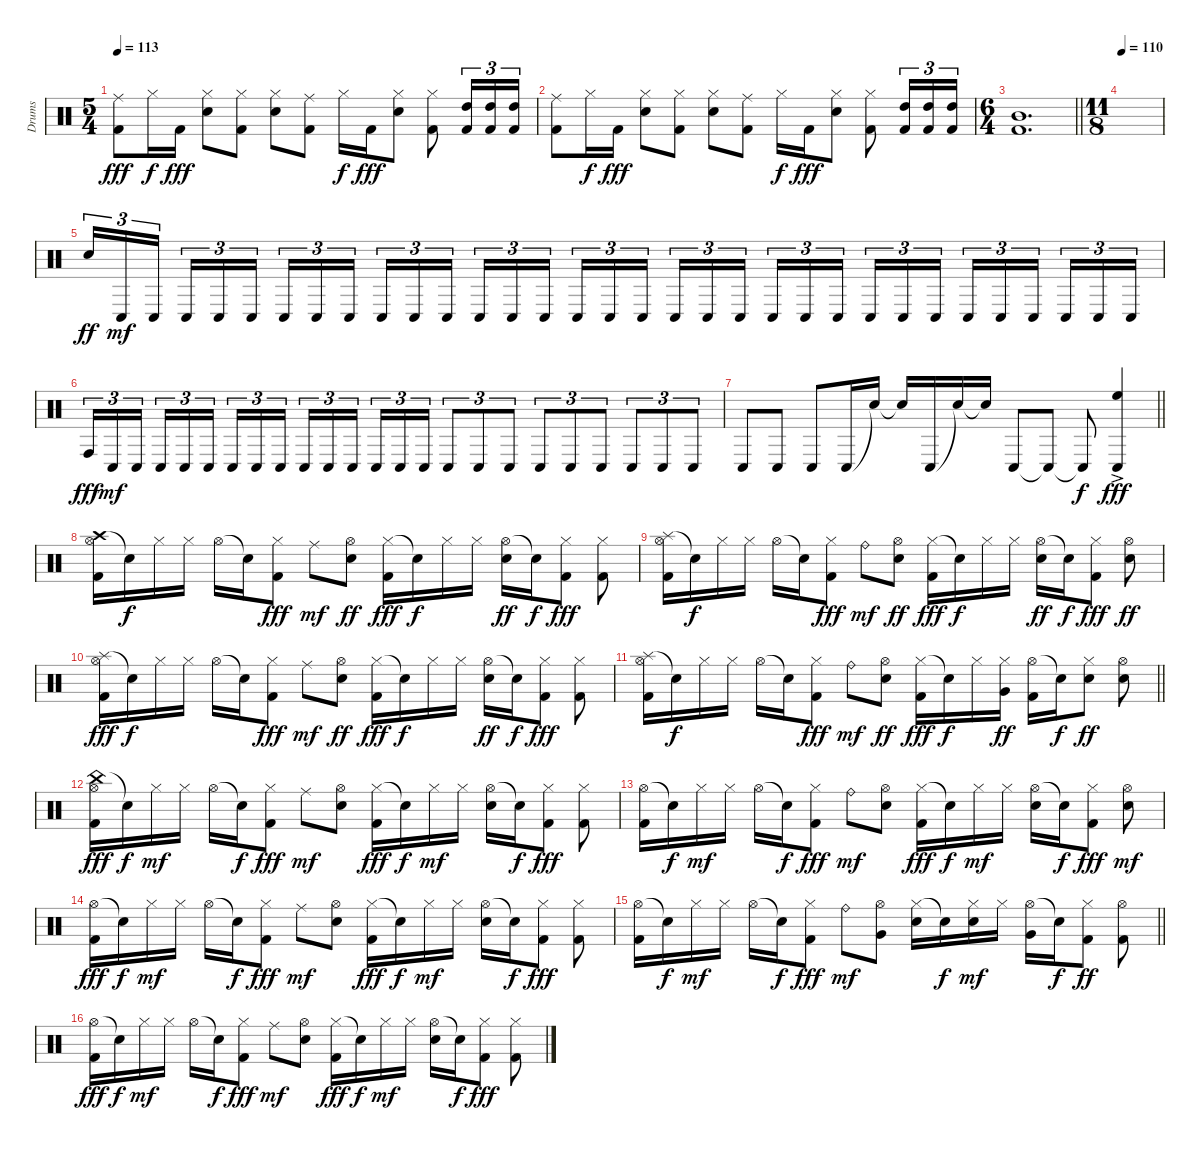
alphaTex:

\track ("Drums" "Drums") {instrument percussion}
\staff {score}
\articulation defaults
\ts (5 4)
\tempo 113
\clef neutral
\ks c
("Ride (middle)" "Kick (hit) 2").8{dy fff} "Hi-Hat (closed)".16{dy f} "Kick (hit) 2".16{dy fff} ("Hi-Hat (closed)" "Snare (hit) 2").8 ("Hi-Hat (closed)" "Kick (hit) 2").8 ("Hi-Hat (closed)" "Snare (hit) 2").8 ("Ride (middle)" "Kick (hit) 2").8 "Hi-Hat (closed)".16{dy f} "Kick (hit) 2".16{dy fff} ("Hi-Hat (closed)" "Snare (hit) 2").8 ("Hi-Hat (closed)" "Kick (hit) 2").8 ("High Tom (hit)" "Kick (hit) 2").16{tu (3 2)} ("High Tom (hit)" "Kick (hit) 2").16{tu (3 2)} ("High Tom (hit)" "Kick (hit) 2").16{tu (3 2)} |
("Ride (middle)" "Kick (hit) 2").8 "Hi-Hat (closed)".16{dy f} "Kick (hit) 2".16{dy fff} ("Hi-Hat (closed)" "Snare (hit) 2").8 ("Hi-Hat (closed)" "Kick (hit) 2").8 ("Hi-Hat (closed)" "Snare (hit) 2").8 ("Ride (middle)" "Kick (hit) 2").8 "Hi-Hat (closed)".16{dy f} "Kick (hit) 2".16{dy fff} ("Hi-Hat (closed)" "Snare (hit) 2").8 ("Hi-Hat (closed)" "Kick (hit) 2").8 ("High Tom (hit)" "Kick (hit) 2").16{tu (3 2)} ("High Tom (hit)" "Kick (hit) 2").16{tu (3 2)} ("High Tom (hit)" "Kick (hit) 2").16{tu (3 2)} |
\ts (6 4)
\barLineRight lightlight
("Mid Tom (hit)" "Kick (hit) 2").1{d} |
\ts (11 8)
\section ("" "")
\tempo 110
|
"Snare (hit) 2".16{tu (3 2) dy ff} "Conga low (hit)".16{tu (3 2) dy mf} "Conga low (hit)".16{tu (3 2)} "Conga low (hit)".16{tu (3 2)} "Conga low (hit)".16{tu (3 2)} "Conga low (hit)".16{tu (3 2)} "Conga low (hit)".16{tu (3 2)} "Conga low (hit)".16{tu (3 2)} "Conga low (hit)".16{tu (3 2)} "Conga low (hit)".16{tu (3 2)} "Conga low (hit)".16{tu (3 2)} "Conga low (hit)".16{tu (3 2)} "Conga low (hit)".16{tu (3 2)} "Conga low (hit)".16{tu (3 2)} "Conga low (hit)".16{tu (3 2)} "Conga low (hit)".16{tu (3 2)} "Conga low (hit)".16{tu (3 2)} "Conga low (hit)".16{tu (3 2)} "Conga low (hit)".16{tu (3 2)} "Conga low (hit)".16{tu (3 2)} "Conga low (hit)".16{tu (3 2)} "Conga low (hit)".16{tu (3 2)} "Conga low (hit)".16{tu (3 2)} "Conga low (hit)".16{tu (3 2)} "Conga low (hit)".16{tu (3 2)} "Conga low (hit)".16{tu (3 2)} "Conga low (hit)".16{tu (3 2)} "Conga low (hit)".16{tu (3 2)} "Conga low (hit)".16{tu (3 2)} "Conga low (hit)".16{tu (3 2)} "Conga low (hit)".16{tu (3 2)} "Conga low (hit)".16{tu (3 2)} "Conga low (hit)".16{tu (3 2)} |
"Conga high (hit)".16{tu (3 2) dy fff} "Conga low (hit)".16{tu (3 2) dy mf} "Conga low (hit)".16{tu (3 2)} "Conga low (hit)".16{tu (3 2)} "Conga low (hit)".16{tu (3 2)} "Conga low (hit)".16{tu (3 2)} "Conga low (hit)".16{tu (3 2)} "Conga low (hit)".16{tu (3 2)} "Conga low (hit)".16{tu (3 2)} "Conga low (hit)".16{tu (3 2)} "Conga low (hit)".16{tu (3 2)} "Conga low (hit)".16{tu (3 2)} "Conga low (hit)".16{tu (3 2)} "Conga low (hit)".16{tu (3 2)} "Conga low (hit)".16{tu (3 2)} "Conga low (hit)".8{tu (3 2)} "Conga low (hit)".8{tu (3 2)} "Conga low (hit)".8{tu (3 2)} "Conga low (hit)".8{tu (3 2)} "Conga low (hit)".8{tu (3 2)} "Conga low (hit)".8{tu (3 2)} "Conga low (hit)".8{tu (3 2)} "Conga low (hit)".8{tu (3 2)} "Conga low (hit)".8{tu (3 2)} |
\barLineRight lightlight "Conga low (hit)".8 "Conga low (hit)".8 "Conga low (hit)".8 "Conga low (hit)".16 "Snare (hit)"{t}.16 "Snare (hit)"{t}.16 "Conga low (hit)".16 "Snare (hit)"{t}.16 "Snare (hit)"{t}.16 "Conga low (hit)".8 "Conga low (hit)"{t}.8 "Conga low (hit)"{t}.8{dy f}
("High Floor Tom (hit)"{ac} "Conga low (hit)"{ac}).4{dy fff} |
\section ("" "")
("Crash high (hit)" "Hi-Hat (open)" "Kick (hit) 2").16 "Snare (hit)"{t}.16{dy f} "Hi-Hat (closed)".16 "Hi-Hat (closed)".16 "Hi-Hat (open)".16 "Snare (hit)"{t}.16 ("Hi-Hat (closed)" "Kick (hit) 2").8{dy fff} "Ride (middle)".8{dy mf} ("Hi-Hat (open)" "Snare (hit) 2").8{dy ff} ("Hi-Hat (closed)" "Kick (hit) 2").16{dy fff} "Snare (hit)"{t}.16{dy f} "Hi-Hat (closed)".16 "Hi-Hat (closed)".16 ("Hi-Hat (open)" "Snare (hit) 2").16{dy ff} "Snare (hit)"{t}.16{dy f} ("Hi-Hat (closed)" "Kick (hit) 2").8{dy fff} ("Hi-Hat (closed)" "Kick (hit) 2").8 |
("Splash (hit)" "Hi-Hat (open)" "Kick (hit) 2").16 "Snare (hit)"{t}.16{dy f} "Hi-Hat (closed)".16 "Hi-Hat (closed)".16 "Hi-Hat (open)".16 "Snare (hit)"{t}.16 ("Hi-Hat (closed)" "Kick (hit) 2").8{dy fff} "Ride (bell)".8{dy mf} ("Hi-Hat (open)" "Snare (hit) 2").8{dy ff} ("Hi-Hat (closed)" "Kick (hit) 2").16{dy fff} "Snare (hit)"{t}.16{dy f} "Hi-Hat (closed)".16 "Hi-Hat (closed)".16 ("Hi-Hat (open)" "Snare (hit) 2").16{dy ff} "Snare (hit)"{t}.16{dy f} ("Hi-Hat (closed)" "Kick (hit) 2").8{dy fff} ("Hi-Hat (open)" "Snare (hit) 2").8{dy ff} |
("Splash (hit)" "Hi-Hat (open)" "Kick (hit) 2").16{dy fff} "Snare (hit)"{t}.16{dy f} "Hi-Hat (closed)".16 "Hi-Hat (closed)".16 "Hi-Hat (open)".16 "Snare (hit)"{t}.16 ("Hi-Hat (closed)" "Kick (hit) 2").8{dy fff} "Ride (middle)".8{dy mf} ("Hi-Hat (open)" "Snare (hit) 2").8{dy ff} ("Hi-Hat (closed)" "Kick (hit) 2").16{dy fff} "Snare (hit)"{t}.16{dy f} "Hi-Hat (closed)".16 "Hi-Hat (closed)".16 ("Hi-Hat (open)" "Snare (hit) 2").16{dy ff} "Snare (hit)"{t}.16{dy f} ("Hi-Hat (closed)" "Kick (hit) 2").8{dy fff} ("Hi-Hat (closed)" "Kick (hit) 2").8 |
\barLineRight lightlight
("Splash (hit)" "Hi-Hat (open)" "Kick (hit) 2").16 "Snare (hit)"{t}.16{dy f} "Hi-Hat (closed)".16 "Hi-Hat (closed)".16 "Hi-Hat (open)".16 "Snare (hit)"{t}.16 ("Hi-Hat (closed)" "Kick (hit) 2").8{dy fff} "Ride (bell)".8{dy mf} ("Hi-Hat (open)" "Snare (hit) 2").8{dy ff} ("Hi-Hat (closed)" "Kick (hit) 2").16{dy fff} "Snare (hit)"{t}.16{dy f} "Hi-Hat (closed)".16 ("Hi-Hat (closed)" "Very Low Tom (hit)").16{dy ff} ("Hi-Hat (open)" "Kick (hit) 2").16 "Snare (hit)"{t}.16{dy f} ("Hi-Hat (closed)" "Snare (hit) 2").8{dy ff} ("Hi-Hat (open)" "Snare (hit) 2").8 |
("China (hit)" "Hi-Hat (open)" "Kick (hit) 2").16{dy fff} "Snare (hit)"{t}.16{dy f} "Hi-Hat (closed)".16{dy mf} "Hi-Hat (closed)".16 "Hi-Hat (open)".16 "Snare (hit)"{t}.16{dy f} ("Hi-Hat (closed)" "Kick (hit) 2").8{dy fff} "Ride (middle)".8{dy mf} ("Hi-Hat (open)" "Snare (hit) 2").8 ("Hi-Hat (closed)" "Kick (hit) 2").16{dy fff} "Snare (hit)"{t}.16{dy f} "Hi-Hat (closed)".16{dy mf} "Hi-Hat (closed)".16 ("Hi-Hat (open)" "Snare (hit) 2").16 "Snare (hit)"{t}.16{dy f} ("Hi-Hat (closed)" "Kick (hit) 2").8{dy fff} ("Hi-Hat (closed)" "Kick (hit) 2").8 |
("Hi-Hat (open)" "Kick (hit) 2").16 "Snare (hit)"{t}.16{dy f} "Hi-Hat (closed)".16{dy mf} "Hi-Hat (closed)".16 "Hi-Hat (open)".16 "Snare (hit)"{t}.16{dy f} ("Hi-Hat (closed)" "Kick (hit) 2").8{dy fff} "Ride (bell)".8{dy mf} ("Hi-Hat (open)" "Snare (hit) 2").8 ("Hi-Hat (closed)" "Kick (hit) 2").16{dy fff} "Snare (hit)"{t}.16{dy f} "Hi-Hat (closed)".16{dy mf} "Hi-Hat (closed)".16 ("Hi-Hat (open)" "Snare (hit) 2").16 "Snare (hit)"{t}.16{dy f} ("Hi-Hat (closed)" "Kick (hit) 2").8{dy fff} ("Hi-Hat (open)" "Snare (hit) 2").8{dy mf} |
("Hi-Hat (open)" "Kick (hit) 2").16{dy fff} "Snare (hit)"{t}.16{dy f} "Hi-Hat (closed)".16{dy mf} "Hi-Hat (closed)".16 "Hi-Hat (open)".16 "Snare (hit)"{t}.16{dy f} ("Hi-Hat (closed)" "Kick (hit) 2").8{dy fff} "Ride (middle)".8{dy mf} ("Hi-Hat (open)" "Snare (hit) 2").8 ("Hi-Hat (closed)" "Kick (hit) 2").16{dy fff} "Snare (hit)"{t}.16{dy f} "Hi-Hat (closed)".16{dy mf} "Hi-Hat (closed)".16 ("Hi-Hat (open)" "Snare (hit) 2").16 "Snare (hit)"{t}.16{dy f} ("Hi-Hat (closed)" "Kick (hit) 2").8{dy fff} ("Hi-Hat (closed)" "Kick (hit) 2").8 |
\barLineRight lightlight
("Hi-Hat (open)" "Kick (hit) 2").16 "Snare (hit)"{t}.16{dy f} "Hi-Hat (closed)".16{dy mf} "Hi-Hat (closed)".16 "Hi-Hat (open)".16 "Snare (hit)"{t}.16{dy f} ("Hi-Hat (closed)" "Kick (hit) 2").8{dy fff} "Ride (bell)".8{dy mf} ("Hi-Hat (open)" "Very Low Tom (hit)").8 ("Hi-Hat (closed)" "Snare (hit) 2").16 "Snare (hit)"{t}.16{dy f} ("Hi-Hat (closed)" "Snare (hit) 2").16{dy mf} "Hi-Hat (closed)".16 ("Hi-Hat (open)" "Very Low Tom (hit)").16 "Snare (hit)"{t}.16{dy f} ("Hi-Hat (closed)" "Kick (hit) 2").8{dy ff} ("Hi-Hat (open)" "Kick (hit) 2").8 |
\section ("" "")
("Hi-Hat (open)" "Kick (hit) 2").16{dy fff} "Snare (hit)"{t}.16{dy f} "Hi-Hat (closed)".16{dy mf} "Hi-Hat (closed)".16 "Hi-Hat (open)".16 "Snare (hit)"{t}.16{dy f} ("Hi-Hat (closed)" "Kick (hit) 2").8{dy fff} "Ride (middle)".8{dy mf} ("Hi-Hat (open)" "Snare (hit) 2").8 ("Hi-Hat (closed)" "Kick (hit) 2").16{dy fff} "Snare (hit)"{t}.16{dy f} "Hi-Hat (closed)".16{dy mf} "Hi-Hat (closed)".16 ("Hi-Hat (open)" "Snare (hit) 2").16 "Snare (hit)"{t}.16{dy f} ("Hi-Hat (closed)" "Kick (hit) 2").8{dy fff} ("Hi-Hat (closed)" "Kick (hit) 2").8
